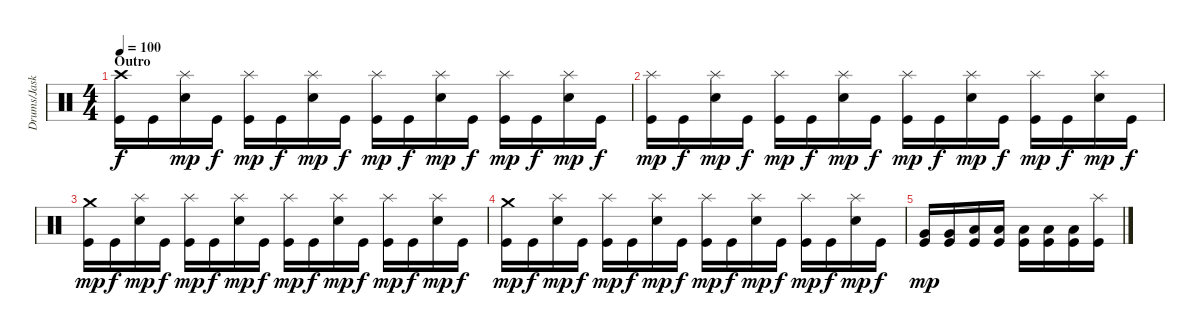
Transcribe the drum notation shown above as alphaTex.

\track ("Drums/Jaska" "Drums/Jask") {instrument percussion}
\staff {score}
\articulation defaults
\ts (4 4)
\section ("" "Outro")
\tempo 100
\clef neutral
\ks c
("Crash high (hit)" "Kick (hit)").16{dy f} "Kick (hit)".16 ("Splash (hit)" "Electric Snare (hit)").16{dy mp} "Kick (hit)".16{dy f} ("Splash (hit)" "Kick (hit)").16{dy mp} "Kick (hit)".16{dy f} ("Splash (hit)" "Electric Snare (hit)").16{dy mp} "Kick (hit)".16{dy f} ("Splash (hit)" "Kick (hit)").16{dy mp} "Kick (hit)".16{dy f} ("Splash (hit)" "Electric Snare (hit)").16{dy mp} "Kick (hit)".16{dy f} ("Splash (hit)" "Kick (hit)").16{dy mp} "Kick (hit)".16{dy f} ("Splash (hit)" "Electric Snare (hit)").16{dy mp} "Kick (hit)".16{dy f} |
("Splash (hit)" "Kick (hit)").16{dy mp} "Kick (hit)".16{dy f} ("Splash (hit)" "Electric Snare (hit)").16{dy mp} "Kick (hit)".16{dy f} ("Splash (hit)" "Kick (hit)").16{dy mp} "Kick (hit)".16{dy f} ("Splash (hit)" "Electric Snare (hit)").16{dy mp} "Kick (hit)".16{dy f} ("Splash (hit)" "Kick (hit)").16{dy mp} "Kick (hit)".16{dy f} ("Splash (hit)" "Electric Snare (hit)").16{dy mp} "Kick (hit)".16{dy f} ("Splash (hit)" "Kick (hit)").16{dy mp} "Kick (hit)".16{dy f} ("Splash (hit)" "Electric Snare (hit)").16{dy mp} "Kick (hit)".16{dy f} |
("Crash medium (hit)" "Kick (hit)").16{dy mp} "Kick (hit)".16{dy f} ("Splash (hit)" "Electric Snare (hit)").16{dy mp} "Kick (hit)".16{dy f} ("Splash (hit)" "Kick (hit)").16{dy mp} "Kick (hit)".16{dy f} ("Splash (hit)" "Electric Snare (hit)").16{dy mp} "Kick (hit)".16{dy f} ("Splash (hit)" "Kick (hit)").16{dy mp} "Kick (hit)".16{dy f} ("Splash (hit)" "Electric Snare (hit)").16{dy mp} "Kick (hit)".16{dy f} ("Splash (hit)" "Kick (hit)").16{dy mp} "Kick (hit)".16{dy f} ("Splash (hit)" "Electric Snare (hit)").16{dy mp} "Kick (hit)".16{dy f} |
("Crash medium (hit)" "Kick (hit)").16{dy mp} "Kick (hit)".16{dy f} ("Splash (hit)" "Electric Snare (hit)").16{dy mp} "Kick (hit)".16{dy f} ("Splash (hit)" "Kick (hit)").16{dy mp} "Kick (hit)".16{dy f} ("Splash (hit)" "Electric Snare (hit)").16{dy mp} "Kick (hit)".16{dy f} ("Splash (hit)" "Kick (hit)").16{dy mp} "Kick (hit)".16{dy f} ("Splash (hit)" "Electric Snare (hit)").16{dy mp} "Kick (hit)".16{dy f} ("Splash (hit)" "Kick (hit)").16{dy mp} "Kick (hit)".16{dy f} ("Splash (hit)" "Electric Snare (hit)").16{dy mp} "Kick (hit)".16{dy f} |
("Very Low Tom (hit)" "Kick (hit)").16{dy mp} ("Very Low Tom (hit)" "Kick (hit)").16 ("Low Floor Tom (hit)" "Kick (hit)").16 ("Low Floor Tom (hit)" "Kick (hit)").16 ("Low Floor Tom (hit)" "Kick (hit)").16 ("Low Floor Tom (hit)" "Kick (hit)").16 ("Low Floor Tom (hit)" "Kick (hit)").16 ("Splash (hit)" "Kick (hit)").16
